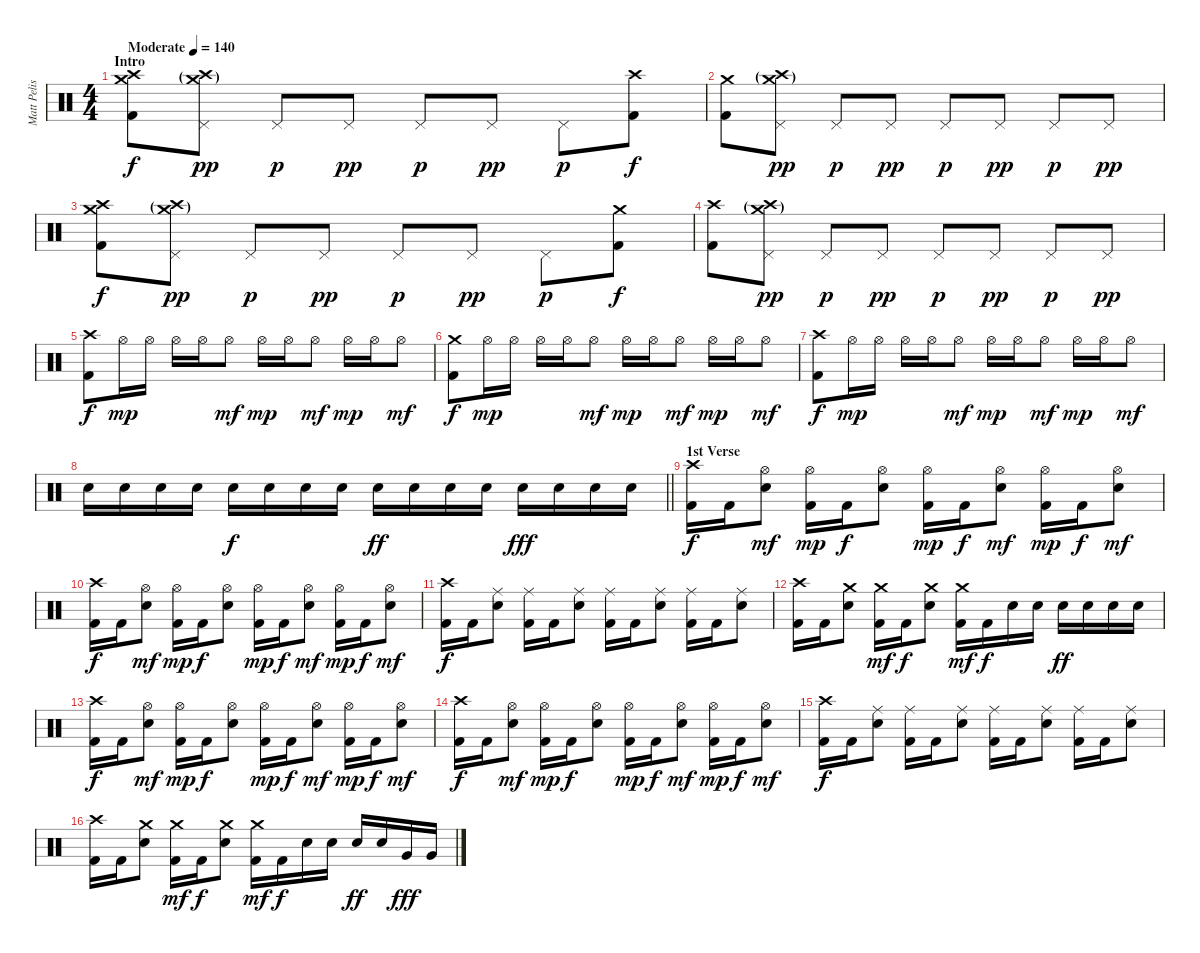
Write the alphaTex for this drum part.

\track ("Matt Pelissier" "Matt Pelis") {instrument percussion}
\staff {score}
\articulation defaults
\ts (4 4)
\section ("" "Intro")
\tempo (140 "Moderate")
\clef neutral
\ks c
("Crash medium (hit)" "Crash high (hit)" "Kick (hit) 2").8{dy f} ("Crash medium (hit)"{g} "Crash high (hit)"{g} "Pedal Hi-Hat (hit)").8{dy pp} "Pedal Hi-Hat (hit)".8{dy p} "Pedal Hi-Hat (hit)".8{dy pp} "Pedal Hi-Hat (hit)".8{dy p} "Pedal Hi-Hat (hit)".8{dy pp} "Pedal Hi-Hat (hit)".8{dy p} ("Crash high (hit)" "Kick (hit) 2").8{dy f} |
("Crash medium (hit)" "Kick (hit) 2").8 ("Crash medium (hit)"{g} "Crash high (hit)"{g} "Pedal Hi-Hat (hit)").8{dy pp} "Pedal Hi-Hat (hit)".8{dy p} "Pedal Hi-Hat (hit)".8{dy pp} "Pedal Hi-Hat (hit)".8{dy p} "Pedal Hi-Hat (hit)".8{dy pp} "Pedal Hi-Hat (hit)".8{dy p} "Pedal Hi-Hat (hit)".8{dy pp} |
("Crash medium (hit)" "Crash high (hit)" "Kick (hit) 2").8{dy f} ("Crash medium (hit)"{g} "Crash high (hit)"{g} "Pedal Hi-Hat (hit)").8{dy pp} "Pedal Hi-Hat (hit)".8{dy p} "Pedal Hi-Hat (hit)".8{dy pp} "Pedal Hi-Hat (hit)".8{dy p} "Pedal Hi-Hat (hit)".8{dy pp} "Pedal Hi-Hat (hit)".8{dy p} ("Crash medium (hit)" "Kick (hit) 2").8{dy f} |
("Crash high (hit)" "Kick (hit) 2").8 ("Crash medium (hit)"{g} "Crash high (hit)"{g} "Pedal Hi-Hat (hit)").8{dy pp} "Pedal Hi-Hat (hit)".8{dy p} "Pedal Hi-Hat (hit)".8{dy pp} "Pedal Hi-Hat (hit)".8{dy p} "Pedal Hi-Hat (hit)".8{dy pp} "Pedal Hi-Hat (hit)".8{dy p} "Pedal Hi-Hat (hit)".8{dy pp} |
("Crash high (hit)" "Kick (hit) 2").8{dy f volume 13} "Hi-Hat (open)".16{dy mp} "Hi-Hat (open)".16 "Hi-Hat (open)".16 "Hi-Hat (open)".16 "Hi-Hat (open)".8{dy mf} "Hi-Hat (open)".16{dy mp} "Hi-Hat (open)".16 "Hi-Hat (open)".8{dy mf} "Hi-Hat (open)".16{dy mp} "Hi-Hat (open)".16 "Hi-Hat (open)".8{dy mf} |
("Crash medium (hit)" "Kick (hit) 2").8{dy f} "Hi-Hat (open)".16{dy mp} "Hi-Hat (open)".16 "Hi-Hat (open)".16 "Hi-Hat (open)".16 "Hi-Hat (open)".8{dy mf} "Hi-Hat (open)".16{dy mp} "Hi-Hat (open)".16 "Hi-Hat (open)".8{dy mf} "Hi-Hat (open)".16{dy mp} "Hi-Hat (open)".16 "Hi-Hat (open)".8{dy mf} |
("Crash high (hit)" "Kick (hit) 2").8{dy f} "Hi-Hat (open)".16{dy mp} "Hi-Hat (open)".16 "Hi-Hat (open)".16 "Hi-Hat (open)".16 "Hi-Hat (open)".8{dy mf} "Hi-Hat (open)".16{dy mp} "Hi-Hat (open)".16 "Hi-Hat (open)".8{dy mf} "Hi-Hat (open)".16{dy mp} "Hi-Hat (open)".16 "Hi-Hat (open)".8{dy mf} |
\barLineRight lightlight "Snare (hit) 2".16 "Snare (hit) 2".16 "Snare (hit) 2".16 "Snare (hit) 2".16 "Snare (hit) 2".16{dy f} "Snare (hit) 2".16 "Snare (hit) 2".16 "Snare (hit) 2".16 "Snare (hit) 2".16{dy ff} "Snare (hit) 2".16 "Snare (hit) 2".16 "Snare (hit) 2".16 "Snare (hit) 2".16{dy fff} "Snare (hit) 2".16 "Snare (hit) 2".16 "Snare (hit) 2".16
|
\section ("" "1st Verse")
("Crash high (hit)" "Kick (hit) 2").16{dy f} "Kick (hit) 2".16 ("Hi-Hat (open)" "Snare (hit) 2").8{dy mf} ("Hi-Hat (open)" "Kick (hit) 2").16{dy mp} "Kick (hit) 2".16{dy f} ("Hi-Hat (open)" "Snare (hit) 2").8 ("Hi-Hat (open)" "Kick (hit) 2").16{dy mp} "Kick (hit) 2".16{dy f} ("Hi-Hat (open)" "Snare (hit) 2").8{dy mf} ("Hi-Hat (open)" "Kick (hit) 2").16{dy mp} "Kick (hit) 2".16{dy f} ("Hi-Hat (open)" "Snare (hit) 2").8{dy mf} |
("Crash high (hit)" "Kick (hit) 2").16{dy f} "Kick (hit) 2".16 ("Hi-Hat (open)" "Snare (hit) 2").8{dy mf} ("Hi-Hat (open)" "Kick (hit) 2").16{dy mp} "Kick (hit) 2".16{dy f} ("Hi-Hat (open)" "Snare (hit) 2").8 ("Hi-Hat (open)" "Kick (hit) 2").16{dy mp} "Kick (hit) 2".16{dy f} ("Hi-Hat (open)" "Snare (hit) 2").8{dy mf} ("Hi-Hat (open)" "Kick (hit) 2").16{dy mp} "Kick (hit) 2".16{dy f} ("Hi-Hat (open)" "Snare (hit) 2").8{dy mf} |
("Crash high (hit)" "Kick (hit) 2").16{dy f} "Kick (hit) 2".16 ("Ride (middle)" "Snare (hit) 2").8 ("Ride (middle)" "Kick (hit) 2").16 "Kick (hit) 2".16 ("Ride (middle)" "Snare (hit) 2").8 ("Ride (middle)" "Kick (hit) 2").16 "Kick (hit) 2".16 ("Ride (middle)" "Snare (hit) 2").8 ("Ride (middle)" "Kick (hit) 2").16 "Kick (hit) 2".16 ("Ride (middle)" "Snare (hit) 2").8 |
("Crash high (hit)" "Kick (hit) 2").16 "Kick (hit) 2".16 ("Crash medium (hit)" "Snare (hit) 2").8 ("Crash medium (hit)" "Kick (hit) 2").16{dy mf} "Kick (hit) 2".16{dy f} ("Crash medium (hit)" "Snare (hit) 2").8 ("Crash medium (hit)" "Kick (hit) 2").16{dy mf} "Kick (hit) 2".16{dy f} "Snare (hit) 2".16 "Snare (hit) 2".16 "Snare (hit) 2".16{dy ff} "Snare (hit) 2".16 "Snare (hit) 2".16 "Snare (hit) 2".16 |
("Crash high (hit)" "Kick (hit) 2").16{dy f} "Kick (hit) 2".16 ("Hi-Hat (open)" "Snare (hit) 2").8{dy mf} ("Hi-Hat (open)" "Kick (hit) 2").16{dy mp} "Kick (hit) 2".16{dy f} ("Hi-Hat (open)" "Snare (hit) 2").8 ("Hi-Hat (open)" "Kick (hit) 2").16{dy mp} "Kick (hit) 2".16{dy f} ("Hi-Hat (open)" "Snare (hit) 2").8{dy mf} ("Hi-Hat (open)" "Kick (hit) 2").16{dy mp} "Kick (hit) 2".16{dy f} ("Hi-Hat (open)" "Snare (hit) 2").8{dy mf} |
("Crash high (hit)" "Kick (hit) 2").16{dy f} "Kick (hit) 2".16 ("Hi-Hat (open)" "Snare (hit) 2").8{dy mf} ("Hi-Hat (open)" "Kick (hit) 2").16{dy mp} "Kick (hit) 2".16{dy f} ("Hi-Hat (open)" "Snare (hit) 2").8 ("Hi-Hat (open)" "Kick (hit) 2").16{dy mp} "Kick (hit) 2".16{dy f} ("Hi-Hat (open)" "Snare (hit) 2").8{dy mf} ("Hi-Hat (open)" "Kick (hit) 2").16{dy mp} "Kick (hit) 2".16{dy f} ("Hi-Hat (open)" "Snare (hit) 2").8{dy mf} |
("Crash high (hit)" "Kick (hit) 2").16{dy f} "Kick (hit) 2".16 ("Ride (middle)" "Snare (hit) 2").8 ("Ride (middle)" "Kick (hit) 2").16 "Kick (hit) 2".16 ("Ride (middle)" "Snare (hit) 2").8 ("Ride (middle)" "Kick (hit) 2").16 "Kick (hit) 2".16 ("Ride (middle)" "Snare (hit) 2").8 ("Ride (middle)" "Kick (hit) 2").16 "Kick (hit) 2".16 ("Ride (middle)" "Snare (hit) 2").8 |
("Crash high (hit)" "Kick (hit) 2").16 "Kick (hit) 2".16 ("Crash medium (hit)" "Snare (hit) 2").8 ("Crash medium (hit)" "Kick (hit) 2").16{dy mf} "Kick (hit) 2".16{dy f} ("Crash medium (hit)" "Snare (hit) 2").8 ("Crash medium (hit)" "Kick (hit) 2").16{dy mf} "Kick (hit) 2".16{dy f} "Snare (hit) 2".16 "Snare (hit) 2".16 "Snare (hit) 2".16{dy ff} "Snare (hit) 2".16 "Very Low Tom (hit)".16{dy fff} "Very Low Tom (hit)".16
